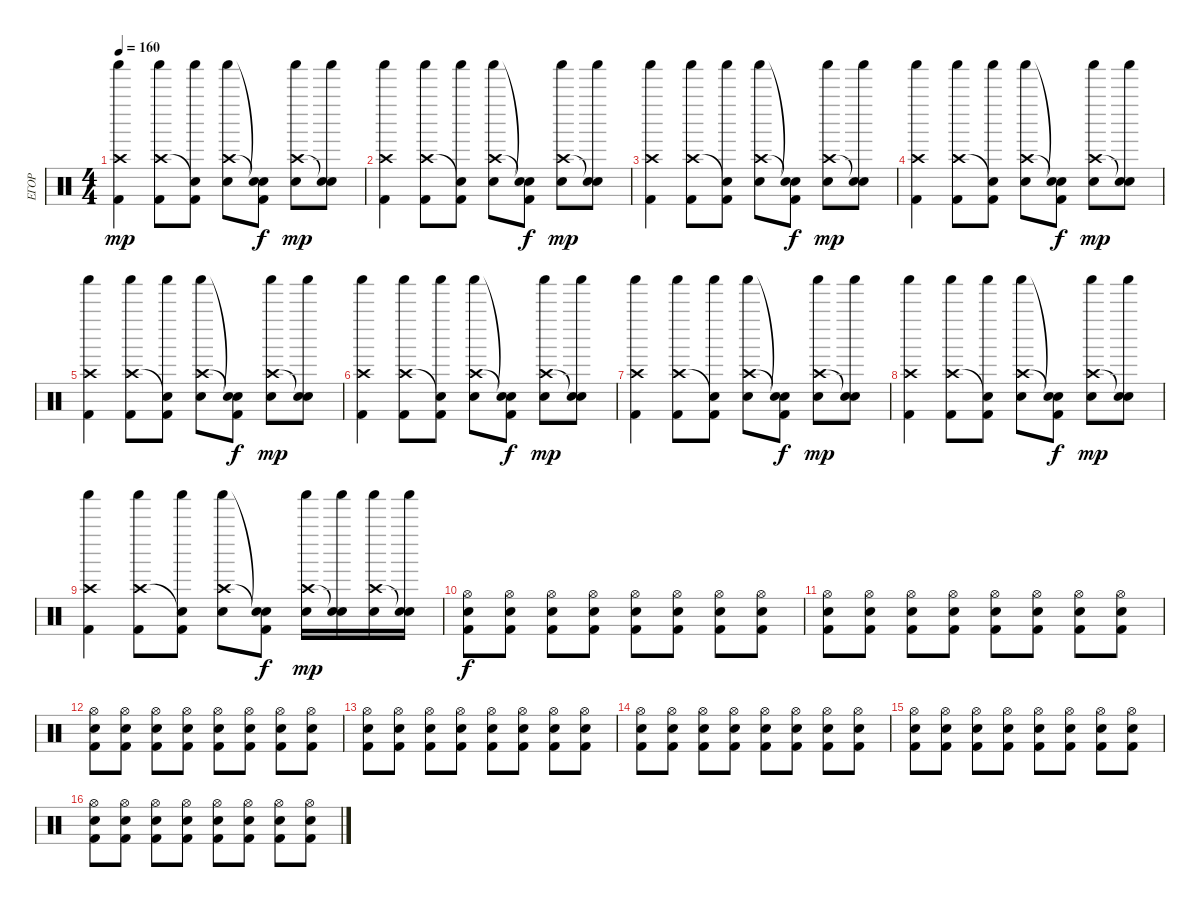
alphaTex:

\track ("ЕГОР" "ЕГОР") {instrument percussion}
\staff {score}
\articulation defaults
\ts (4 4)
\tempo 160
\clef neutral
\ks c
("Crash high (hit)" "Shaker (hit)" "Kick (hit) 2").4{dy mp} ("Crash high (hit)" "Shaker (hit)" "Kick (hit) 2").8 ("Snare (hit)"{t} "Shaker (hit)" "Kick (hit) 2").8 ("Crash high (hit)" "Shaker (hit)" "Electric Snare (hit)").8 ("Snare (hit)"{t} "Snare (hit)"{t} "Kick (hit) 2").8{dy f} ("Crash high (hit)" "Shaker (hit)" "Electric Snare (hit)").8{dy mp} ("Snare (hit)"{t} "Shaker (hit)" "Electric Snare (hit)").8 |
("Crash high (hit)" "Shaker (hit)" "Kick (hit) 2").4 ("Crash high (hit)" "Shaker (hit)" "Kick (hit) 2").8 ("Snare (hit)"{t} "Shaker (hit)" "Kick (hit) 2").8 ("Crash high (hit)" "Shaker (hit)" "Electric Snare (hit)").8 ("Snare (hit)"{t} "Snare (hit)"{t} "Kick (hit) 2").8{dy f} ("Crash high (hit)" "Shaker (hit)" "Electric Snare (hit)").8{dy mp} ("Snare (hit)"{t} "Shaker (hit)" "Electric Snare (hit)").8 |
("Crash high (hit)" "Shaker (hit)" "Kick (hit) 2").4 ("Crash high (hit)" "Shaker (hit)" "Kick (hit) 2").8 ("Snare (hit)"{t} "Shaker (hit)" "Kick (hit) 2").8 ("Crash high (hit)" "Shaker (hit)" "Electric Snare (hit)").8 ("Snare (hit)"{t} "Snare (hit)"{t} "Kick (hit) 2").8{dy f} ("Crash high (hit)" "Shaker (hit)" "Electric Snare (hit)").8{dy mp} ("Snare (hit)"{t} "Shaker (hit)" "Electric Snare (hit)").8 |
("Crash high (hit)" "Shaker (hit)" "Kick (hit) 2").4 ("Crash high (hit)" "Shaker (hit)" "Kick (hit) 2").8 ("Snare (hit)"{t} "Shaker (hit)" "Kick (hit) 2").8 ("Crash high (hit)" "Shaker (hit)" "Electric Snare (hit)").8 ("Snare (hit)"{t} "Snare (hit)"{t} "Kick (hit) 2").8{dy f} ("Crash high (hit)" "Shaker (hit)" "Electric Snare (hit)").8{dy mp} ("Snare (hit)"{t} "Shaker (hit)" "Electric Snare (hit)").8 |
("Crash high (hit)" "Shaker (hit)" "Kick (hit) 2").4 ("Crash high (hit)" "Shaker (hit)" "Kick (hit) 2").8 ("Snare (hit)"{t} "Shaker (hit)" "Kick (hit) 2").8 ("Crash high (hit)" "Shaker (hit)" "Electric Snare (hit)").8 ("Snare (hit)"{t} "Snare (hit)"{t} "Kick (hit) 2").8{dy f} ("Crash high (hit)" "Shaker (hit)" "Electric Snare (hit)").8{dy mp} ("Snare (hit)"{t} "Shaker (hit)" "Electric Snare (hit)").8 |
("Crash high (hit)" "Shaker (hit)" "Kick (hit) 2").4 ("Crash high (hit)" "Shaker (hit)" "Kick (hit) 2").8 ("Snare (hit)"{t} "Shaker (hit)" "Kick (hit) 2").8 ("Crash high (hit)" "Shaker (hit)" "Electric Snare (hit)").8 ("Snare (hit)"{t} "Snare (hit)"{t} "Kick (hit) 2").8{dy f} ("Crash high (hit)" "Shaker (hit)" "Electric Snare (hit)").8{dy mp} ("Snare (hit)"{t} "Shaker (hit)" "Electric Snare (hit)").8 |
("Crash high (hit)" "Shaker (hit)" "Kick (hit) 2").4 ("Crash high (hit)" "Shaker (hit)" "Kick (hit) 2").8 ("Snare (hit)"{t} "Shaker (hit)" "Kick (hit) 2").8 ("Crash high (hit)" "Shaker (hit)" "Electric Snare (hit)").8 ("Snare (hit)"{t} "Snare (hit)"{t} "Kick (hit) 2").8{dy f} ("Crash high (hit)" "Shaker (hit)" "Electric Snare (hit)").8{dy mp} ("Snare (hit)"{t} "Shaker (hit)" "Electric Snare (hit)").8 |
("Crash high (hit)" "Shaker (hit)" "Kick (hit) 2").4 ("Crash high (hit)" "Shaker (hit)" "Kick (hit) 2").8 ("Snare (hit)"{t} "Shaker (hit)" "Kick (hit) 2").8 ("Crash high (hit)" "Shaker (hit)" "Electric Snare (hit)").8 ("Snare (hit)"{t} "Snare (hit)"{t} "Kick (hit) 2").8{dy f} ("Crash high (hit)" "Shaker (hit)" "Electric Snare (hit)").8{dy mp} ("Snare (hit)"{t} "Shaker (hit)" "Electric Snare (hit)").8 |
("Crash high (hit)" "Shaker (hit)" "Kick (hit) 2").4 ("Crash high (hit)" "Shaker (hit)" "Kick (hit) 2").8 ("Snare (hit)"{t} "Shaker (hit)" "Kick (hit) 2").8 ("Crash high (hit)" "Shaker (hit)" "Electric Snare (hit)").8 ("Snare (hit)"{t} "Snare (hit)"{t} "Kick (hit) 2").8{dy f} ("Crash high (hit)" "Shaker (hit)" "Electric Snare (hit)").16{dy mp} ("Snare (hit)"{t} "Shaker (hit)" "Electric Snare (hit)").16 ("Crash high (hit)" "Shaker (hit)" "Electric Snare (hit)").16 ("Snare (hit)"{t} "Shaker (hit)" "Electric Snare (hit)").16 |
("Hi-Hat (open)" "Electric Snare (hit)" "Kick (hit) 2").8{dy f} ("Hi-Hat (open)" "Electric Snare (hit)" "Kick (hit) 2").8 ("Hi-Hat (open)" "Electric Snare (hit)" "Kick (hit) 2").8 ("Hi-Hat (open)" "Electric Snare (hit)" "Kick (hit) 2").8 ("Hi-Hat (open)" "Electric Snare (hit)" "Kick (hit) 2").8 ("Hi-Hat (open)" "Electric Snare (hit)" "Kick (hit) 2").8 ("Hi-Hat (open)" "Electric Snare (hit)" "Kick (hit) 2").8 ("Hi-Hat (open)" "Electric Snare (hit)" "Kick (hit) 2").8 |
("Hi-Hat (open)" "Electric Snare (hit)" "Kick (hit) 2").8 ("Hi-Hat (open)" "Electric Snare (hit)" "Kick (hit) 2").8 ("Hi-Hat (open)" "Electric Snare (hit)" "Kick (hit) 2").8 ("Hi-Hat (open)" "Electric Snare (hit)" "Kick (hit) 2").8 ("Hi-Hat (open)" "Electric Snare (hit)" "Kick (hit) 2").8 ("Hi-Hat (open)" "Electric Snare (hit)" "Kick (hit) 2").8 ("Hi-Hat (open)" "Electric Snare (hit)" "Kick (hit) 2").8 ("Hi-Hat (open)" "Electric Snare (hit)" "Kick (hit) 2").8 |
("Hi-Hat (open)" "Electric Snare (hit)" "Kick (hit) 2").8 ("Hi-Hat (open)" "Electric Snare (hit)" "Kick (hit) 2").8 ("Hi-Hat (open)" "Electric Snare (hit)" "Kick (hit) 2").8 ("Hi-Hat (open)" "Electric Snare (hit)" "Kick (hit) 2").8 ("Hi-Hat (open)" "Electric Snare (hit)" "Kick (hit) 2").8 ("Hi-Hat (open)" "Electric Snare (hit)" "Kick (hit) 2").8 ("Hi-Hat (open)" "Electric Snare (hit)" "Kick (hit) 2").8 ("Hi-Hat (open)" "Electric Snare (hit)" "Kick (hit) 2").8 |
("Hi-Hat (open)" "Electric Snare (hit)" "Kick (hit) 2").8 ("Hi-Hat (open)" "Electric Snare (hit)" "Kick (hit) 2").8 ("Hi-Hat (open)" "Electric Snare (hit)" "Kick (hit) 2").8 ("Hi-Hat (open)" "Electric Snare (hit)" "Kick (hit) 2").8 ("Hi-Hat (open)" "Electric Snare (hit)" "Kick (hit) 2").8 ("Hi-Hat (open)" "Electric Snare (hit)" "Kick (hit) 2").8 ("Hi-Hat (open)" "Electric Snare (hit)" "Kick (hit) 2").8 ("Hi-Hat (open)" "Electric Snare (hit)" "Kick (hit) 2").8 |
("Hi-Hat (open)" "Electric Snare (hit)" "Kick (hit) 2").8 ("Hi-Hat (open)" "Electric Snare (hit)" "Kick (hit) 2").8 ("Hi-Hat (open)" "Electric Snare (hit)" "Kick (hit) 2").8 ("Hi-Hat (open)" "Electric Snare (hit)" "Kick (hit) 2").8 ("Hi-Hat (open)" "Electric Snare (hit)" "Kick (hit) 2").8 ("Hi-Hat (open)" "Electric Snare (hit)" "Kick (hit) 2").8 ("Hi-Hat (open)" "Electric Snare (hit)" "Kick (hit) 2").8 ("Hi-Hat (open)" "Electric Snare (hit)" "Kick (hit) 2").8 |
("Hi-Hat (open)" "Electric Snare (hit)" "Kick (hit) 2").8 ("Hi-Hat (open)" "Electric Snare (hit)" "Kick (hit) 2").8 ("Hi-Hat (open)" "Electric Snare (hit)" "Kick (hit) 2").8 ("Hi-Hat (open)" "Electric Snare (hit)" "Kick (hit) 2").8 ("Hi-Hat (open)" "Electric Snare (hit)" "Kick (hit) 2").8 ("Hi-Hat (open)" "Electric Snare (hit)" "Kick (hit) 2").8 ("Hi-Hat (open)" "Electric Snare (hit)" "Kick (hit) 2").8 ("Hi-Hat (open)" "Electric Snare (hit)" "Kick (hit) 2").8 |
("Hi-Hat (open)" "Electric Snare (hit)" "Kick (hit) 2").8 ("Hi-Hat (open)" "Electric Snare (hit)" "Kick (hit) 2").8 ("Hi-Hat (open)" "Electric Snare (hit)" "Kick (hit) 2").8 ("Hi-Hat (open)" "Electric Snare (hit)" "Kick (hit) 2").8 ("Hi-Hat (open)" "Electric Snare (hit)" "Kick (hit) 2").8 ("Hi-Hat (open)" "Electric Snare (hit)" "Kick (hit) 2").8 ("Hi-Hat (open)" "Electric Snare (hit)" "Kick (hit) 2").8 ("Hi-Hat (open)" "Electric Snare (hit)" "Kick (hit) 2").8
